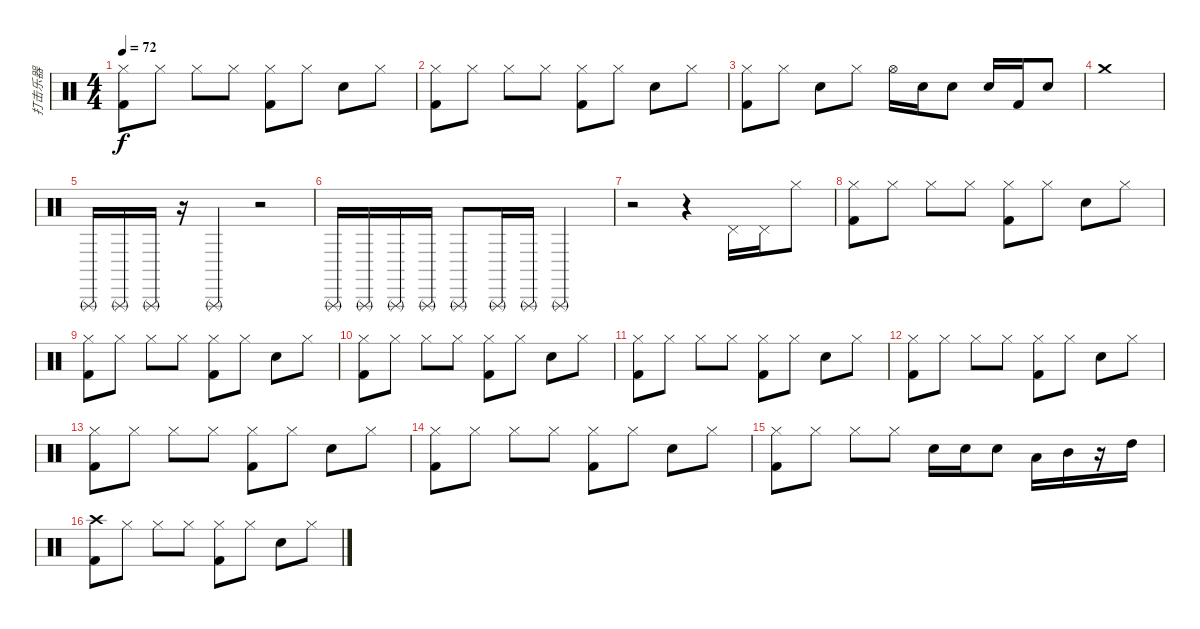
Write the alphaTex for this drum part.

\track ("打击乐器" "打击乐器") {instrument percussion}
\staff {score}
\articulation defaults
\ts (4 4)
\tempo 72
\clef neutral
\ks c
("Hi-Hat (closed)" "Kick (hit) 2").8{dy f} "Hi-Hat (closed)".8 "Hi-Hat (closed)".8 "Hi-Hat (closed)".8 ("Hi-Hat (closed)" "Kick (hit) 2").8 "Hi-Hat (closed)".8 "Electric Snare (hit)".8 "Hi-Hat (closed)".8 |
("Hi-Hat (closed)" "Kick (hit) 2").8 "Hi-Hat (closed)".8 "Hi-Hat (closed)".8 "Hi-Hat (closed)".8 ("Hi-Hat (closed)" "Kick (hit) 2").8 "Hi-Hat (closed)".8 "Electric Snare (hit)".8 "Hi-Hat (closed)".8 |
("Hi-Hat (closed)" "Kick (hit) 2").8 "Hi-Hat (closed)".8 "Electric Snare (hit)".8 "Hi-Hat (closed)".8 "Hi-Hat (open)".16 "Electric Snare (hit)".16 "Electric Snare (hit)".8 "Electric Snare (hit)".16 "Kick (hit) 2".16 "Electric Snare (hit)".8 |
"Crash medium (hit)".1 |
"Triangle (rnute)".16 "Triangle (rnute)".16 "Triangle (rnute)".16 r.16 "Triangle (rnute)".4 r.2 |
"Triangle (rnute)".16 "Triangle (rnute)".16 "Triangle (rnute)".16 "Triangle (rnute)".16 "Triangle (rnute)".8 "Triangle (rnute)".16 "Triangle (rnute)".16 "Triangle (rnute)".2 |
r.2 r.4 "Pedal Hi-Hat (hit)".16 "Pedal Hi-Hat (hit)".16 "Hi-Hat (closed)".8 |
("Hi-Hat (closed)" "Kick (hit) 2").8 "Hi-Hat (closed)".8 "Hi-Hat (closed)".8 "Hi-Hat (closed)".8 ("Hi-Hat (closed)" "Kick (hit) 2").8 "Hi-Hat (closed)".8 "Electric Snare (hit)".8 "Hi-Hat (closed)".8 |
("Hi-Hat (closed)" "Kick (hit) 2").8 "Hi-Hat (closed)".8 "Hi-Hat (closed)".8 "Hi-Hat (closed)".8 ("Hi-Hat (closed)" "Kick (hit) 2").8 "Hi-Hat (closed)".8 "Electric Snare (hit)".8 "Hi-Hat (closed)".8 |
("Hi-Hat (closed)" "Kick (hit) 2").8 "Hi-Hat (closed)".8 "Hi-Hat (closed)".8 "Hi-Hat (closed)".8 ("Hi-Hat (closed)" "Kick (hit) 2").8 "Hi-Hat (closed)".8 "Electric Snare (hit)".8 "Hi-Hat (closed)".8 |
("Hi-Hat (closed)" "Kick (hit) 2").8 "Hi-Hat (closed)".8 "Hi-Hat (closed)".8 "Hi-Hat (closed)".8 ("Hi-Hat (closed)" "Kick (hit) 2").8 "Hi-Hat (closed)".8 "Electric Snare (hit)".8 "Hi-Hat (closed)".8 |
("Hi-Hat (closed)" "Kick (hit) 2").8 "Hi-Hat (closed)".8 "Hi-Hat (closed)".8 "Hi-Hat (closed)".8 ("Hi-Hat (closed)" "Kick (hit) 2").8 "Hi-Hat (closed)".8 "Electric Snare (hit)".8 "Hi-Hat (closed)".8 |
("Hi-Hat (closed)" "Kick (hit) 2").8 "Hi-Hat (closed)".8 "Hi-Hat (closed)".8 "Hi-Hat (closed)".8 ("Hi-Hat (closed)" "Kick (hit) 2").8 "Hi-Hat (closed)".8 "Electric Snare (hit)".8 "Hi-Hat (closed)".8 |
("Hi-Hat (closed)" "Kick (hit) 2").8 "Hi-Hat (closed)".8 "Hi-Hat (closed)".8 "Hi-Hat (closed)".8 ("Hi-Hat (closed)" "Kick (hit) 2").8 "Hi-Hat (closed)".8 "Electric Snare (hit)".8 "Hi-Hat (closed)".8 |
("Hi-Hat (closed)" "Kick (hit) 2").8 "Hi-Hat (closed)".8 "Hi-Hat (closed)".8 "Hi-Hat (closed)".8 "Electric Snare (hit)".16 "Electric Snare (hit)".16 "Electric Snare (hit)".8 "Low Tom (hit)".16 "Mid Tom (hit)".16 r.16 "High Tom (hit)".16 |
("Crash high (hit)" "Kick (hit) 2").8 "Hi-Hat (closed)".8 "Hi-Hat (closed)".8 "Hi-Hat (closed)".8 ("Hi-Hat (closed)" "Kick (hit) 2").8 "Hi-Hat (closed)".8 "Electric Snare (hit)".8 "Hi-Hat (closed)".8
